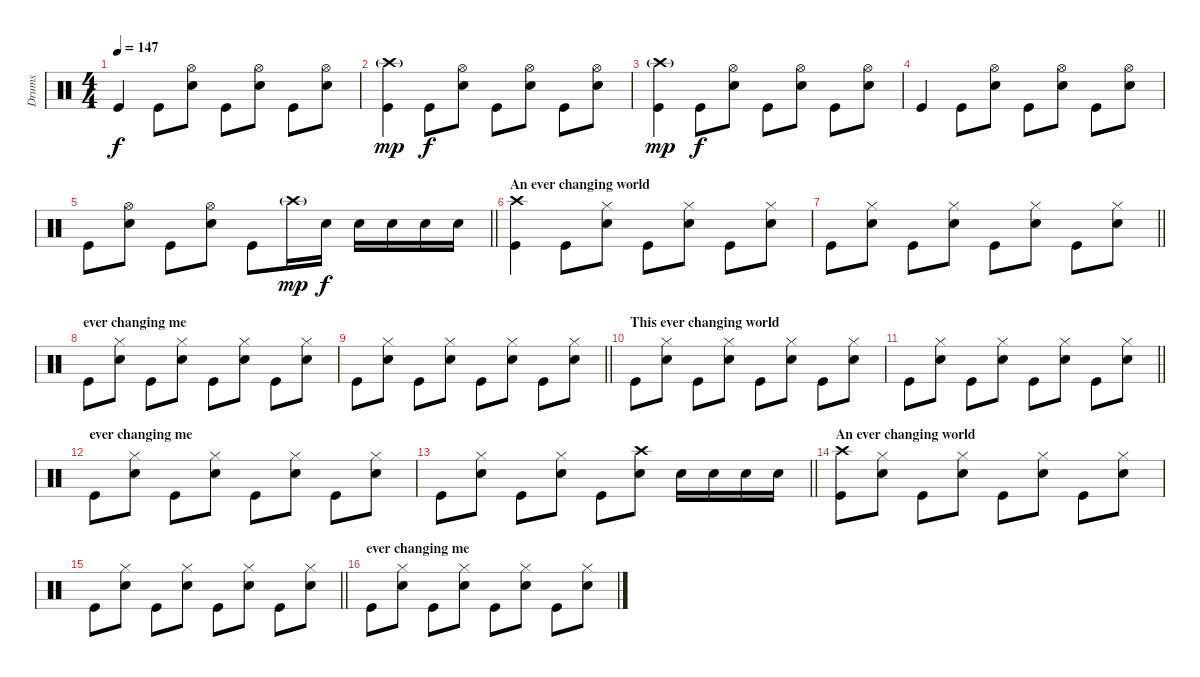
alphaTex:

\track ("Drums" "Drums") {instrument percussion}
\staff {score}
\articulation defaults
\ts (4 4)
\tempo 147
\clef neutral
\ks c "Kick (hit)".4{dy f} "Kick (hit)".8
("Hi-Hat (open)" "Snare (hit) 2").8 "Kick (hit)".8 ("Hi-Hat (open)" "Snare (hit) 2").8 "Kick (hit)".8 ("Hi-Hat (open)" "Snare (hit) 2").8 |
("Crash high (hit)"{g} "Kick (hit)").4{dy mp} "Kick (hit)".8{dy f} ("Hi-Hat (open)" "Snare (hit) 2").8 "Kick (hit)".8 ("Hi-Hat (open)" "Snare (hit) 2").8 "Kick (hit)".8 ("Hi-Hat (open)" "Snare (hit) 2").8 |
("Crash high (hit)"{g} "Kick (hit)").4{dy mp} "Kick (hit)".8{dy f} ("Hi-Hat (open)" "Snare (hit) 2").8 "Kick (hit)".8 ("Hi-Hat (open)" "Snare (hit) 2").8 "Kick (hit)".8 ("Hi-Hat (open)" "Snare (hit) 2").8 |
"Kick (hit)".4 "Kick (hit)".8 ("Hi-Hat (open)" "Snare (hit) 2").8 "Kick (hit)".8 ("Hi-Hat (open)" "Snare (hit) 2").8 "Kick (hit)".8 ("Hi-Hat (open)" "Snare (hit) 2").8 |
\barLineRight lightlight "Kick (hit)".8
("Hi-Hat (open)" "Snare (hit) 2").8 "Kick (hit)".8 ("Hi-Hat (open)" "Snare (hit) 2").8 "Kick (hit)".8 "Crash high (hit)"{g}.16{dy mp} "Snare (hit) 2".16{dy f} "Snare (hit) 2".16 "Snare (hit) 2".16 "Snare (hit) 2".16 "Snare (hit) 2".16 |
\section ("" "An ever changing world ")
("Crash high (hit)" "Kick (hit)").4 "Kick (hit)".8 ("Hi-Hat (closed)" "Snare (hit) 2").8 "Kick (hit)".8 ("Hi-Hat (closed)" "Snare (hit) 2").8 "Kick (hit)".8 ("Hi-Hat (closed)" "Snare (hit) 2").8 |
\barLineRight lightlight "Kick (hit)".8
("Hi-Hat (closed)" "Snare (hit) 2").8 "Kick (hit)".8 ("Hi-Hat (closed)" "Snare (hit) 2").8 "Kick (hit)".8 ("Hi-Hat (closed)" "Snare (hit) 2").8 "Kick (hit)".8 ("Hi-Hat (closed)" "Snare (hit) 2").8 |
\section ("" "ever changing me ")
"Kick (hit)".8 ("Hi-Hat (closed)" "Snare (hit) 2").8 "Kick (hit)".8 ("Hi-Hat (closed)" "Snare (hit) 2").8 "Kick (hit)".8 ("Hi-Hat (closed)" "Snare (hit) 2").8 "Kick (hit)".8 ("Hi-Hat (closed)" "Snare (hit) 2").8 |
\barLineRight lightlight "Kick (hit)".8
("Hi-Hat (closed)" "Snare (hit) 2").8 "Kick (hit)".8 ("Hi-Hat (closed)" "Snare (hit) 2").8 "Kick (hit)".8 ("Hi-Hat (closed)" "Snare (hit) 2").8 "Kick (hit)".8 ("Hi-Hat (closed)" "Snare (hit) 2").8 |
\section ("" "This ever changing world ")
"Kick (hit)".8 ("Hi-Hat (closed)" "Snare (hit) 2").8 "Kick (hit)".8 ("Hi-Hat (closed)" "Snare (hit) 2").8 "Kick (hit)".8 ("Hi-Hat (closed)" "Snare (hit) 2").8 "Kick (hit)".8 ("Hi-Hat (closed)" "Snare (hit) 2").8 |
\barLineRight lightlight "Kick (hit)".8
("Hi-Hat (closed)" "Snare (hit) 2").8 "Kick (hit)".8 ("Hi-Hat (closed)" "Snare (hit) 2").8 "Kick (hit)".8 ("Hi-Hat (closed)" "Snare (hit) 2").8 "Kick (hit)".8 ("Hi-Hat (closed)" "Snare (hit) 2").8 |
\section ("" "ever changing me ")
"Kick (hit)".8 ("Hi-Hat (closed)" "Snare (hit) 2").8 "Kick (hit)".8 ("Hi-Hat (closed)" "Snare (hit) 2").8 "Kick (hit)".8 ("Hi-Hat (closed)" "Snare (hit) 2").8 "Kick (hit)".8 ("Hi-Hat (closed)" "Snare (hit) 2").8 |
\barLineRight lightlight "Kick (hit)".8
("Hi-Hat (closed)" "Snare (hit) 2").8 "Kick (hit)".8 ("Hi-Hat (closed)" "Snare (hit) 2").8 "Kick (hit)".8 ("Crash high (hit)" "Snare (hit) 2").8 "Snare (hit) 2".16 "Snare (hit) 2".16 "Snare (hit) 2".16 "Snare (hit) 2".16 |
\section ("" "An ever changing world ")
("Crash high (hit)" "Kick (hit)").8 ("Hi-Hat (closed)" "Snare (hit) 2").8 "Kick (hit)".8 ("Hi-Hat (closed)" "Snare (hit) 2").8 "Kick (hit)".8 ("Hi-Hat (closed)" "Snare (hit) 2").8 "Kick (hit)".8 ("Hi-Hat (closed)" "Snare (hit) 2").8 |
\barLineRight lightlight "Kick (hit)".8
("Hi-Hat (closed)" "Snare (hit) 2").8 "Kick (hit)".8 ("Hi-Hat (closed)" "Snare (hit) 2").8 "Kick (hit)".8 ("Hi-Hat (closed)" "Snare (hit) 2").8 "Kick (hit)".8 ("Hi-Hat (closed)" "Snare (hit) 2").8 |
\section ("" "ever changing me")
"Kick (hit)".8 ("Hi-Hat (closed)" "Snare (hit) 2").8 "Kick (hit)".8 ("Hi-Hat (closed)" "Snare (hit) 2").8 "Kick (hit)".8 ("Hi-Hat (closed)" "Snare (hit) 2").8 "Kick (hit)".8 ("Hi-Hat (closed)" "Snare (hit) 2").8
